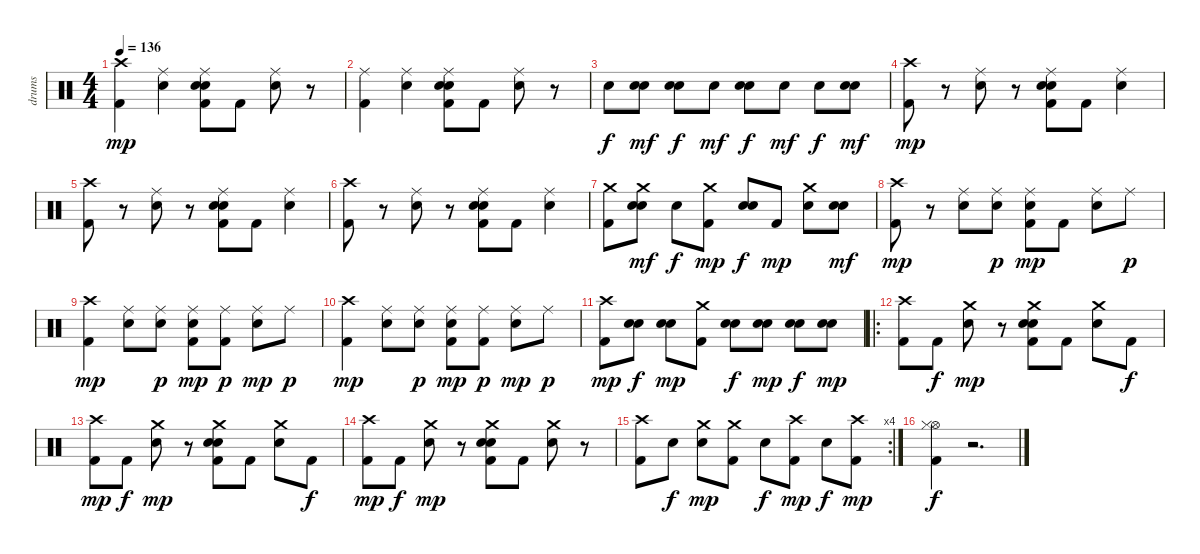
\track ("drums" "drums") {instrument percussion}
\staff {score}
\articulation defaults
\ts (4 4)
\tempo 136
\clef neutral
\ks c
("Kick (hit) 2" "Crash high (hit)").4{dy mp} ("Snare (hit) 2" "Ride (middle)").4 ("Snare (hit) 2" "Kick (hit) 2" "Ride (middle)" "Snare (hit) 2").8 "Kick (hit) 2".8 ("Snare (hit) 2" "Ride (middle)").8 r.8 |
("Kick (hit) 2" "Ride (middle)").4 ("Snare (hit) 2" "Ride (middle)").4 ("Snare (hit) 2" "Kick (hit) 2" "Ride (middle)" "Snare (hit) 2").8 "Kick (hit) 2".8 ("Snare (hit) 2" "Ride (middle)").8 r.8 |
"Snare (hit) 2".8{dy f} ("Snare (hit) 2" "Snare (hit) 2").8{dy mf} ("Snare (hit) 2" "Snare (hit) 2").8{dy f} "Snare (hit) 2".8{dy mf} ("Snare (hit) 2" "Snare (hit) 2").8{dy f} "Snare (hit) 2".8{dy mf} "Snare (hit) 2".8{dy f} ("Snare (hit) 2" "Snare (hit) 2").8{dy mf} |
("Kick (hit) 2" "Crash high (hit)").8{dy mp} r.8 ("Snare (hit) 2" "Ride (middle)").8 r.8 ("Snare (hit) 2" "Kick (hit) 2" "Ride (middle)" "Snare (hit) 2").8 "Kick (hit) 2".8 ("Snare (hit) 2" "Ride (middle)").4 |
("Kick (hit) 2" "Crash high (hit)").8 r.8 ("Snare (hit) 2" "Ride (middle)").8 r.8 ("Snare (hit) 2" "Kick (hit) 2" "Ride (middle)" "Snare (hit) 2").8 "Kick (hit) 2".8 ("Snare (hit) 2" "Ride (middle)").4 |
("Kick (hit) 2" "Crash high (hit)").8 r.8 ("Snare (hit) 2" "Ride (middle)").8 r.8 ("Snare (hit) 2" "Kick (hit) 2" "Ride (middle)" "Snare (hit) 2").8 "Kick (hit) 2".8 ("Snare (hit) 2" "Ride (middle)").4 |
("Kick (hit) 2" "Crash medium (hit)").8 ("Snare (hit) 2" "Crash medium (hit)" "Snare (hit) 2").8{dy mf} "Snare (hit) 2".8{dy f} ("Kick (hit) 2" "Crash medium (hit)").8{dy mp} ("Snare (hit) 2" "Snare (hit) 2").8{dy f} "Kick (hit) 2".8{dy mp} ("Snare (hit) 2" "Crash medium (hit)").8 ("Snare (hit) 2" "Snare (hit) 2").8{dy mf} |
("Kick (hit) 2" "Crash high (hit)").8{dy mp} r.8 ("Snare (hit) 2" "Ride (middle)").8 ("Ride (middle)" "Snare (hit) 2").8{dy p} ("Kick (hit) 2" "Ride (middle)" "Snare (hit) 2").8{dy mp} "Kick (hit) 2".8 ("Snare (hit) 2" "Ride (middle)").8 "Ride (middle)".8{dy p} |
("Kick (hit) 2" "Crash high (hit)").4{dy mp} ("Snare (hit) 2" "Ride (middle)").8 ("Ride (middle)" "Snare (hit) 2").8{dy p} ("Kick (hit) 2" "Ride (middle)" "Snare (hit) 2").8{dy mp} ("Kick (hit) 2" "Ride (middle)").8{dy p} ("Snare (hit) 2" "Ride (middle)").8{dy mp} "Ride (middle)".8{dy p} |
("Kick (hit) 2" "Crash high (hit)").4{dy mp} ("Snare (hit) 2" "Ride (middle)").8 ("Ride (middle)" "Snare (hit) 2").8{dy p} ("Kick (hit) 2" "Ride (middle)" "Snare (hit) 2").8{dy mp} ("Kick (hit) 2" "Ride (middle)").8{dy p} ("Snare (hit) 2" "Ride (middle)").8{dy mp} "Ride (middle)".8{dy p} |
("Kick (hit) 2" "Crash high (hit)").8{dy mp} ("Snare (hit) 2" "Snare (hit) 2").8{dy f} ("Snare (hit) 2" "Snare (hit) 2").8{dy mp} ("Kick (hit) 2" "Crash medium (hit)").8 ("Snare (hit) 2" "Snare (hit) 2").8{dy f} ("Snare (hit) 2" "Snare (hit) 2").8{dy mp} ("Snare (hit) 2" "Snare (hit) 2").8{dy f} ("Snare (hit) 2" "Snare (hit) 2").8{dy mp} |
\ro
("Kick (hit) 2" "Crash high (hit)").8 "Kick (hit) 2".8{dy f} ("Snare (hit) 2" "Crash medium (hit)").8{dy mp} r.8 ("Snare (hit) 2" "Kick (hit) 2" "Crash medium (hit)" "Snare (hit) 2").8 "Kick (hit) 2".8 ("Snare (hit) 2" "Crash medium (hit)").8 "Kick (hit) 2".8{dy f} |
("Kick (hit) 2" "Crash high (hit)").8{dy mp} "Kick (hit) 2".8{dy f} ("Snare (hit) 2" "Crash medium (hit)").8{dy mp} r.8 ("Snare (hit) 2" "Kick (hit) 2" "Crash medium (hit)" "Snare (hit) 2").8 "Kick (hit) 2".8 ("Snare (hit) 2" "Crash medium (hit)").8 "Kick (hit) 2".8{dy f} |
("Kick (hit) 2" "Crash high (hit)").8{dy mp} "Kick (hit) 2".8{dy f} ("Snare (hit) 2" "Crash medium (hit)").8{dy mp} r.8 ("Snare (hit) 2" "Kick (hit) 2" "Crash medium (hit)" "Snare (hit) 2").8 "Kick (hit) 2".8 ("Snare (hit) 2" "Crash medium (hit)").8 r.8 |
\rc 4
("Kick (hit) 2" "Crash high (hit)").8 "Snare (hit) 2".8{dy f} ("Snare (hit) 2" "Crash medium (hit)").8{dy mp} ("Kick (hit) 2" "Crash medium (hit)").8 "Snare (hit) 2".8{dy f} ("Kick (hit) 2" "Crash high (hit)").8{dy mp} "Snare (hit) 2".8{dy f} ("Kick (hit) 2" "Crash high (hit)").8{dy mp} |
("Kick (hit) 2" "Hi-Hat (open)" "Hi-Hat (closed)").4{dy f} r.2{d}
